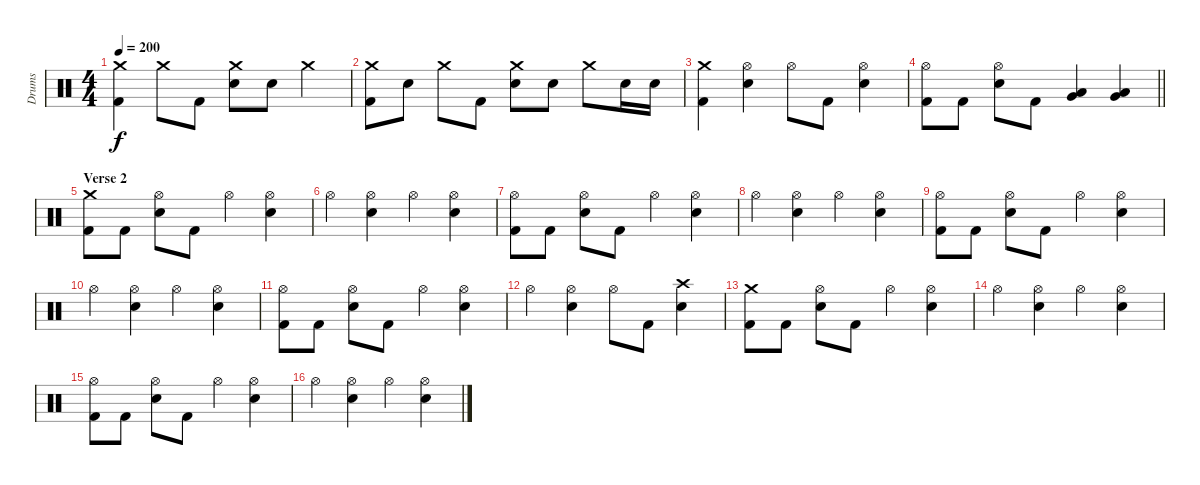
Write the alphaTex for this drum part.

\track ("Drums" "Drums") {instrument percussion}
\staff {score}
\articulation defaults
\ts (4 4)
\tempo 200
\clef neutral
\ks c
("Crash medium (hit)" "Kick (hit) 2").4{dy f} "Crash medium (hit)".8 "Kick (hit) 2".8 ("Crash medium (hit)" "Electric Snare (hit)").8 "Electric Snare (hit)".8 "Crash medium (hit)".4 |
("Crash medium (hit)" "Kick (hit) 2").8 "Electric Snare (hit)".8 "Crash medium (hit)".8 "Kick (hit) 2".8 ("Crash medium (hit)" "Electric Snare (hit)").8 "Electric Snare (hit)".8 "Crash medium (hit)".8 "Electric Snare (hit)".16 "Electric Snare (hit)".16 |
("Crash medium (hit)" "Kick (hit) 2").4 ("Hi-Hat (open)" "Electric Snare (hit)").4 "Hi-Hat (open)".8 "Kick (hit) 2".8 ("Hi-Hat (open)" "Electric Snare (hit)").4 |
\barLineRight lightlight
("Hi-Hat (open)" "Kick (hit) 2").8 "Kick (hit) 2".8 ("Hi-Hat (open)" "Electric Snare (hit)").8 "Kick (hit) 2".8 ("Low Floor Tom (hit)" "Very Low Tom (hit)").4 ("Low Floor Tom (hit)" "Very Low Tom (hit)").4 |
\section ("" "Verse 2")
("Crash medium (hit)" "Kick (hit) 2").8 "Kick (hit) 2".8 ("Hi-Hat (open)" "Electric Snare (hit)").8 "Kick (hit) 2".8 "Hi-Hat (open)".4 ("Hi-Hat (open)" "Electric Snare (hit)").4 |
"Hi-Hat (open)".4 ("Hi-Hat (open)" "Electric Snare (hit)").4 "Hi-Hat (open)".4 ("Hi-Hat (open)" "Electric Snare (hit)").4 |
("Hi-Hat (open)" "Kick (hit) 2").8 "Kick (hit) 2".8 ("Hi-Hat (open)" "Electric Snare (hit)").8 "Kick (hit) 2".8 "Hi-Hat (open)".4 ("Hi-Hat (open)" "Electric Snare (hit)").4 |
"Hi-Hat (open)".4 ("Hi-Hat (open)" "Electric Snare (hit)").4 "Hi-Hat (open)".4 ("Hi-Hat (open)" "Electric Snare (hit)").4 |
("Hi-Hat (open)" "Kick (hit) 2").8 "Kick (hit) 2".8 ("Hi-Hat (open)" "Electric Snare (hit)").8 "Kick (hit) 2".8 "Hi-Hat (open)".4 ("Hi-Hat (open)" "Electric Snare (hit)").4 |
"Hi-Hat (open)".4 ("Hi-Hat (open)" "Electric Snare (hit)").4 "Hi-Hat (open)".4 ("Hi-Hat (open)" "Electric Snare (hit)").4 |
("Hi-Hat (open)" "Kick (hit) 2").8 "Kick (hit) 2".8 ("Hi-Hat (open)" "Electric Snare (hit)").8 "Kick (hit) 2".8 "Hi-Hat (open)".4 ("Hi-Hat (open)" "Electric Snare (hit)").4 |
"Hi-Hat (open)".4 ("Hi-Hat (open)" "Electric Snare (hit)").4 "Hi-Hat (open)".8 "Kick (hit) 2".8 ("Crash high (hit)" "Electric Snare (hit)").4 |
("Crash medium (hit)" "Kick (hit) 2").8 "Kick (hit) 2".8 ("Hi-Hat (open)" "Electric Snare (hit)").8 "Kick (hit) 2".8 "Hi-Hat (open)".4 ("Hi-Hat (open)" "Electric Snare (hit)").4 |
"Hi-Hat (open)".4 ("Hi-Hat (open)" "Electric Snare (hit)").4 "Hi-Hat (open)".4 ("Hi-Hat (open)" "Electric Snare (hit)").4 |
("Hi-Hat (open)" "Kick (hit) 2").8 "Kick (hit) 2".8 ("Hi-Hat (open)" "Electric Snare (hit)").8 "Kick (hit) 2".8 "Hi-Hat (open)".4 ("Hi-Hat (open)" "Electric Snare (hit)").4 |
"Hi-Hat (open)".4 ("Hi-Hat (open)" "Electric Snare (hit)").4 "Hi-Hat (open)".4 ("Hi-Hat (open)" "Electric Snare (hit)").4
